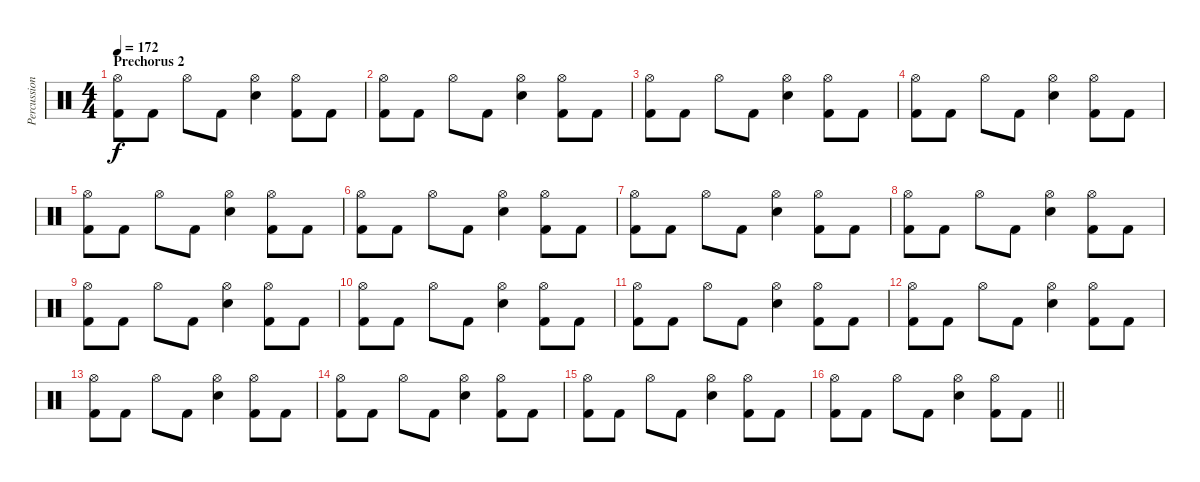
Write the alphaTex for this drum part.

\track ("Percussion" "Percussion") {instrument percussion}
\staff {score}
\articulation defaults
\ts (4 4)
\section ("" "Prechorus 2")
\tempo 172
\clef neutral
\ks c
("Hi-Hat (open)" "Kick (hit) 2").8{dy f} "Kick (hit) 2".8 "Hi-Hat (open)".8 "Kick (hit) 2".8 ("Hi-Hat (open)" "Electric Snare (hit)").4 ("Hi-Hat (open)" "Kick (hit) 2").8 "Kick (hit) 2".8 |
("Hi-Hat (open)" "Kick (hit) 2").8 "Kick (hit) 2".8 "Hi-Hat (open)".8 "Kick (hit) 2".8 ("Hi-Hat (open)" "Electric Snare (hit)").4 ("Hi-Hat (open)" "Kick (hit) 2").8 "Kick (hit) 2".8 |
("Hi-Hat (open)" "Kick (hit) 2").8 "Kick (hit) 2".8 "Hi-Hat (open)".8 "Kick (hit) 2".8 ("Hi-Hat (open)" "Electric Snare (hit)").4 ("Hi-Hat (open)" "Kick (hit) 2").8 "Kick (hit) 2".8 |
("Hi-Hat (open)" "Kick (hit) 2").8 "Kick (hit) 2".8 "Hi-Hat (open)".8 "Kick (hit) 2".8 ("Hi-Hat (open)" "Electric Snare (hit)").4 ("Hi-Hat (open)" "Kick (hit) 2").8 "Kick (hit) 2".8 |
("Hi-Hat (open)" "Kick (hit) 2").8 "Kick (hit) 2".8 "Hi-Hat (open)".8 "Kick (hit) 2".8 ("Hi-Hat (open)" "Electric Snare (hit)").4 ("Hi-Hat (open)" "Kick (hit) 2").8 "Kick (hit) 2".8 |
("Hi-Hat (open)" "Kick (hit) 2").8 "Kick (hit) 2".8 "Hi-Hat (open)".8 "Kick (hit) 2".8 ("Hi-Hat (open)" "Electric Snare (hit)").4 ("Hi-Hat (open)" "Kick (hit) 2").8 "Kick (hit) 2".8 |
("Hi-Hat (open)" "Kick (hit) 2").8 "Kick (hit) 2".8 "Hi-Hat (open)".8 "Kick (hit) 2".8 ("Hi-Hat (open)" "Electric Snare (hit)").4 ("Hi-Hat (open)" "Kick (hit) 2").8 "Kick (hit) 2".8 |
("Hi-Hat (open)" "Kick (hit) 2").8 "Kick (hit) 2".8 "Hi-Hat (open)".8 "Kick (hit) 2".8 ("Hi-Hat (open)" "Electric Snare (hit)").4 ("Hi-Hat (open)" "Kick (hit) 2").8 "Kick (hit) 2".8 |
("Hi-Hat (open)" "Kick (hit) 2").8 "Kick (hit) 2".8 "Hi-Hat (open)".8 "Kick (hit) 2".8 ("Hi-Hat (open)" "Electric Snare (hit)").4 ("Hi-Hat (open)" "Kick (hit) 2").8 "Kick (hit) 2".8 |
("Hi-Hat (open)" "Kick (hit) 2").8 "Kick (hit) 2".8 "Hi-Hat (open)".8 "Kick (hit) 2".8 ("Hi-Hat (open)" "Electric Snare (hit)").4 ("Hi-Hat (open)" "Kick (hit) 2").8 "Kick (hit) 2".8 |
("Hi-Hat (open)" "Kick (hit) 2").8 "Kick (hit) 2".8 "Hi-Hat (open)".8 "Kick (hit) 2".8 ("Hi-Hat (open)" "Electric Snare (hit)").4 ("Hi-Hat (open)" "Kick (hit) 2").8 "Kick (hit) 2".8 |
("Hi-Hat (open)" "Kick (hit) 2").8 "Kick (hit) 2".8 "Hi-Hat (open)".8 "Kick (hit) 2".8 ("Hi-Hat (open)" "Electric Snare (hit)").4 ("Hi-Hat (open)" "Kick (hit) 2").8 "Kick (hit) 2".8 |
("Hi-Hat (open)" "Kick (hit) 2").8 "Kick (hit) 2".8 "Hi-Hat (open)".8 "Kick (hit) 2".8 ("Hi-Hat (open)" "Electric Snare (hit)").4 ("Hi-Hat (open)" "Kick (hit) 2").8 "Kick (hit) 2".8 |
("Hi-Hat (open)" "Kick (hit) 2").8 "Kick (hit) 2".8 "Hi-Hat (open)".8 "Kick (hit) 2".8 ("Hi-Hat (open)" "Electric Snare (hit)").4 ("Hi-Hat (open)" "Kick (hit) 2").8 "Kick (hit) 2".8 |
("Hi-Hat (open)" "Kick (hit) 2").8 "Kick (hit) 2".8 "Hi-Hat (open)".8 "Kick (hit) 2".8 ("Hi-Hat (open)" "Electric Snare (hit)").4 ("Hi-Hat (open)" "Kick (hit) 2").8 "Kick (hit) 2".8 |
\barLineRight lightlight
("Hi-Hat (open)" "Kick (hit) 2").8 "Kick (hit) 2".8 "Hi-Hat (open)".8 "Kick (hit) 2".8 ("Hi-Hat (open)" "Electric Snare (hit)").4 ("Hi-Hat (open)" "Kick (hit) 2").8 "Kick (hit) 2".8
